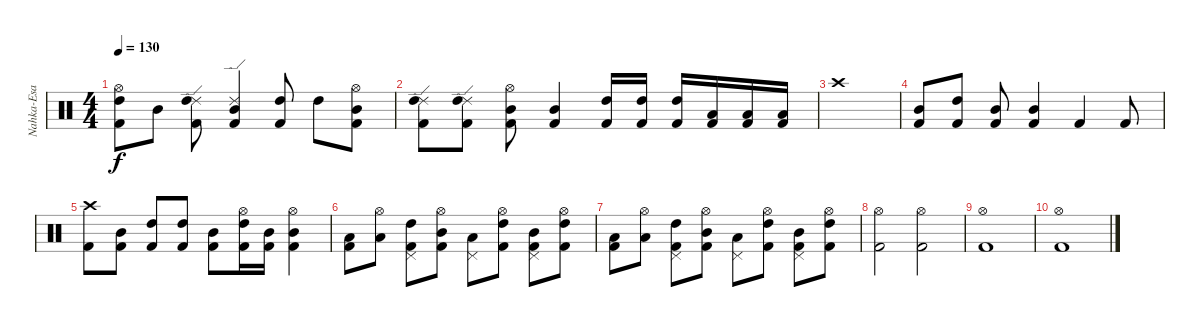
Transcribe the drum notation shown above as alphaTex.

\track ("Nahka-Esa" "Nahka-Esa") {instrument percussion}
\staff {score}
\articulation defaults
\ts (4 4)
\tempo 130
\clef neutral
\ks c
("Hi-Hat (open)" "High Tom (hit)" "Kick (hit) 2").8{dy f} "Mid Tom (hit)".8 ("Ride (edge) 2" "High Tom (hit)" "Kick (hit) 2").8 ("Ride (edge) 2" "Mid Tom (hit)" "Kick (hit) 2").4 ("High Tom (hit)" "Kick (hit) 2").8 "High Tom (hit)".8 ("Hi-Hat (open)" "Mid Tom (hit)" "Kick (hit) 2").8 |
("Ride (edge) 2" "High Tom (hit)" "Kick (hit) 2").8 ("Ride (edge) 2" "High Tom (hit)" "Kick (hit) 2").8 ("Hi-Hat (open)" "Mid Tom (hit)" "Kick (hit) 2").8 ("Mid Tom (hit)" "Kick (hit) 2").4 ("High Tom (hit)" "Kick (hit) 2").16 ("High Tom (hit)" "Kick (hit) 2").16 ("High Tom (hit)" "Kick (hit) 2").16 ("Low Tom (hit)" "Kick (hit) 2").16 ("Low Tom (hit)" "Kick (hit) 2").16 ("Low Tom (hit)" "Kick (hit) 2").16 |
"Crash high (hit)".1 |
("Mid Tom (hit)" "Kick (hit) 2").8 ("High Tom (hit)" "Kick (hit) 2").8 ("Mid Tom (hit)" "Kick (hit) 2").8 ("Mid Tom (hit)" "Kick (hit) 2").4 "Kick (hit) 2".4 "Kick (hit) 2".8 |
("Crash high (hit)" "Kick (hit) 2").8 ("Mid Tom (hit)" "Kick (hit) 2").8 ("High Tom (hit)" "Kick (hit) 2").8 ("High Tom (hit)" "Kick (hit) 2").8 ("Mid Tom (hit)" "Kick (hit) 2").8 ("Hi-Hat (open)" "High Tom (hit)" "Kick (hit) 2").16 ("Mid Tom (hit)" "Kick (hit) 2").16 ("Hi-Hat (open)" "Mid Tom (hit)" "Kick (hit) 2").4 |
("Low Tom (hit)" "Kick (hit) 2").8 ("Hi-Hat (open)" "Low Tom (hit)").8 ("Pedal Hi-Hat (hit)" "High Tom (hit)" "Kick (hit) 2").8 ("Hi-Hat (open)" "Mid Tom (hit)" "Kick (hit) 2").8 ("Pedal Hi-Hat (hit)" "Low Tom (hit)").8 ("Hi-Hat (open)" "High Tom (hit)" "Kick (hit) 2").8 ("Pedal Hi-Hat (hit)" "Mid Tom (hit)" "Kick (hit) 2").8 ("Hi-Hat (open)" "High Tom (hit)" "Kick (hit) 2").8 |
("Low Tom (hit)" "Kick (hit) 2").8 ("Hi-Hat (open)" "Low Tom (hit)").8 ("Pedal Hi-Hat (hit)" "High Tom (hit)" "Kick (hit) 2").8 ("Hi-Hat (open)" "Mid Tom (hit)" "Kick (hit) 2").8 ("Pedal Hi-Hat (hit)" "Low Tom (hit)").8 ("Hi-Hat (open)" "High Tom (hit)" "Kick (hit) 2").8 ("Pedal Hi-Hat (hit)" "Mid Tom (hit)" "Kick (hit) 2").8 ("Hi-Hat (open)" "High Tom (hit)" "Kick (hit) 2").8 |
("Hi-Hat (open)" "Kick (hit) 2").2 ("Hi-Hat (open)" "Kick (hit) 2").2 |
("Hi-Hat (open)" "Kick (hit) 2").1 |
("Hi-Hat (open)" "Kick (hit) 2").1
